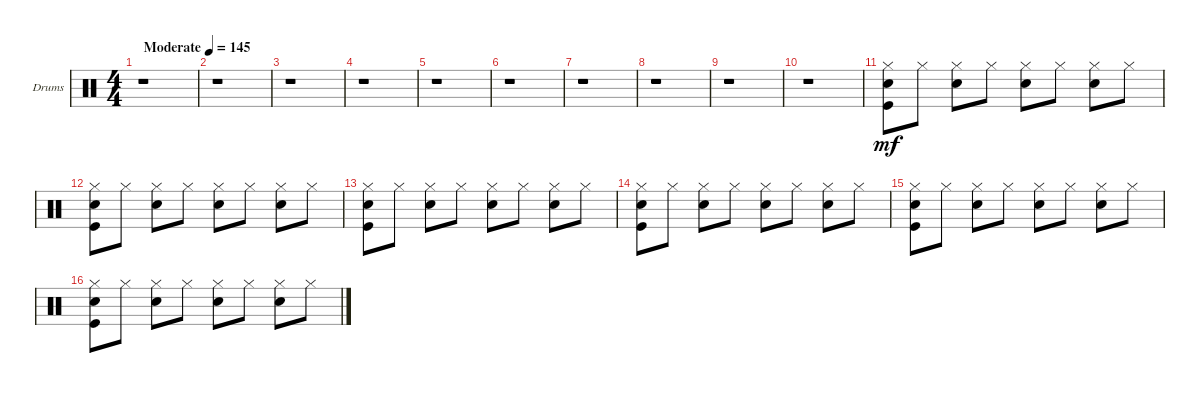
\bracketExtendMode groupsimilarinstruments
\firstSystemTrackNameOrientation horizontal
\otherSystemsTrackNameOrientation horizontal
\track ("Drumkit" "Drums") {instrument percussion}
\staff {score}
\articulation defaults
\ts (4 4)
\beaming (8 2 2 2 2)
\tempo (145 "Moderate")
\clef neutral
\ks c
r.1{dy mf} |
r.1 |
r.1 |
r.1 |
r.1 |
r.1 |
r.1 |
r.1 |
r.1 |
r.1 |
("Hi-Hat (closed)" "Kick (hit)" "Snare (hit) 2").8 "Hi-Hat (closed)".8 ("Hi-Hat (closed)" "Snare (hit) 2").8 "Hi-Hat (closed)".8 ("Hi-Hat (closed)" "Snare (hit) 2").8 "Hi-Hat (closed)".8 ("Hi-Hat (closed)" "Snare (hit) 2").8 "Hi-Hat (closed)".8 |
("Hi-Hat (closed)" "Kick (hit)" "Snare (hit) 2").8 "Hi-Hat (closed)".8 ("Hi-Hat (closed)" "Snare (hit) 2").8 "Hi-Hat (closed)".8 ("Hi-Hat (closed)" "Snare (hit) 2").8 "Hi-Hat (closed)".8 ("Hi-Hat (closed)" "Snare (hit) 2").8 "Hi-Hat (closed)".8 |
("Hi-Hat (closed)" "Kick (hit)" "Snare (hit) 2").8 "Hi-Hat (closed)".8 ("Hi-Hat (closed)" "Snare (hit) 2").8 "Hi-Hat (closed)".8 ("Hi-Hat (closed)" "Snare (hit) 2").8 "Hi-Hat (closed)".8 ("Hi-Hat (closed)" "Snare (hit) 2").8 "Hi-Hat (closed)".8 |
("Hi-Hat (closed)" "Kick (hit)" "Snare (hit) 2").8 "Hi-Hat (closed)".8 ("Hi-Hat (closed)" "Snare (hit) 2").8 "Hi-Hat (closed)".8 ("Hi-Hat (closed)" "Snare (hit) 2").8 "Hi-Hat (closed)".8 ("Hi-Hat (closed)" "Snare (hit) 2").8 "Hi-Hat (closed)".8 |
("Hi-Hat (closed)" "Kick (hit)" "Snare (hit) 2").8 "Hi-Hat (closed)".8 ("Hi-Hat (closed)" "Snare (hit) 2").8 "Hi-Hat (closed)".8 ("Hi-Hat (closed)" "Snare (hit) 2").8 "Hi-Hat (closed)".8 ("Hi-Hat (closed)" "Snare (hit) 2").8 "Hi-Hat (closed)".8 |
("Hi-Hat (closed)" "Kick (hit)" "Snare (hit) 2").8 "Hi-Hat (closed)".8 ("Hi-Hat (closed)" "Snare (hit) 2").8 "Hi-Hat (closed)".8 ("Hi-Hat (closed)" "Snare (hit) 2").8 "Hi-Hat (closed)".8 ("Hi-Hat (closed)" "Snare (hit) 2").8 "Hi-Hat (closed)".8
